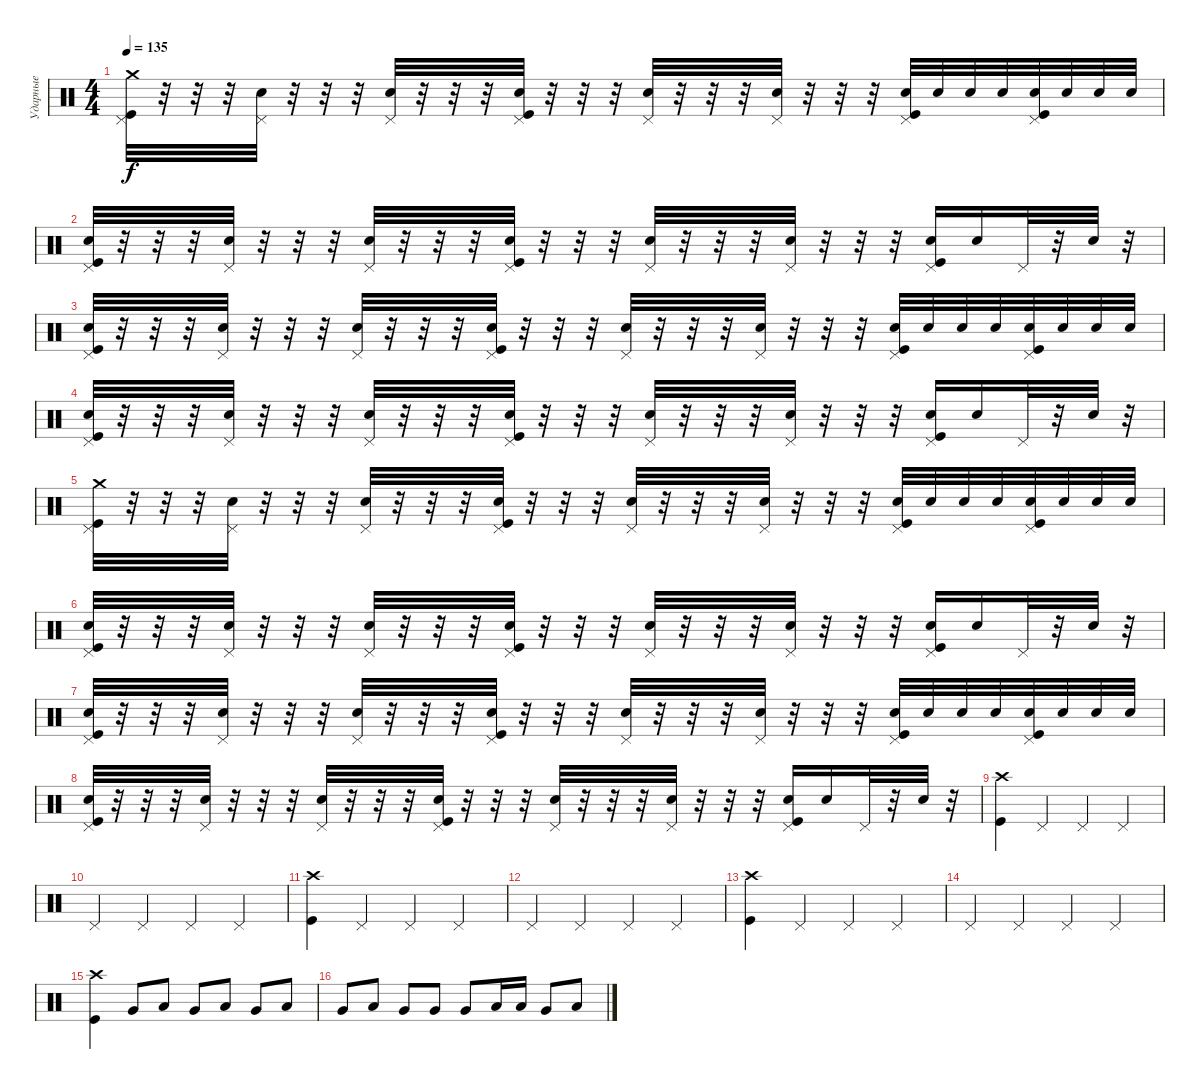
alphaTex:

\track ("Ударные" "Ударные") {instrument percussion}
\staff {score}
\articulation defaults
\ts (4 4)
\tempo 135
\clef neutral
\ks c
("Crash medium (hit)" "Pedal Hi-Hat (hit)" "Kick (hit)").32{dy f} r.32 r.32 r.32 ("Pedal Hi-Hat (hit)" "Electric Snare (hit)").32 r.32 r.32 r.32 ("Pedal Hi-Hat (hit)" "Electric Snare (hit)").32 r.32 r.32 r.32 ("Pedal Hi-Hat (hit)" "Electric Snare (hit)" "Kick (hit)").32 r.32 r.32 r.32 ("Pedal Hi-Hat (hit)" "Electric Snare (hit)").32 r.32 r.32 r.32 ("Pedal Hi-Hat (hit)" "Electric Snare (hit)").32 r.32 r.32 r.32 ("Pedal Hi-Hat (hit)" "Electric Snare (hit)" "Kick (hit)").32 "Electric Snare (hit)".32 "Electric Snare (hit)".32 "Electric Snare (hit)".32 ("Pedal Hi-Hat (hit)" "Electric Snare (hit)" "Kick (hit)").32 "Electric Snare (hit)".32 "Electric Snare (hit)".32 "Electric Snare (hit)".32 |
("Pedal Hi-Hat (hit)" "Electric Snare (hit)" "Kick (hit)").32 r.32 r.32 r.32 ("Pedal Hi-Hat (hit)" "Electric Snare (hit)").32 r.32 r.32 r.32 ("Pedal Hi-Hat (hit)" "Electric Snare (hit)").32 r.32 r.32 r.32 ("Pedal Hi-Hat (hit)" "Kick (hit)" "Electric Snare (hit)").32 r.32 r.32 r.32 ("Pedal Hi-Hat (hit)" "Electric Snare (hit)").32 r.32 r.32 r.32 ("Pedal Hi-Hat (hit)" "Electric Snare (hit)").32 r.32 r.32 r.32 ("Pedal Hi-Hat (hit)" "Electric Snare (hit)" "Kick (hit)").16 "Electric Snare (hit)".16 "Pedal Hi-Hat (hit)".32 r.32 "Electric Snare (hit)".32 r.32 |
("Pedal Hi-Hat (hit)" "Kick (hit)" "Electric Snare (hit)").32 r.32 r.32 r.32 ("Pedal Hi-Hat (hit)" "Electric Snare (hit)").32 r.32 r.32 r.32 ("Pedal Hi-Hat (hit)" "Electric Snare (hit)").32 r.32 r.32 r.32 ("Pedal Hi-Hat (hit)" "Electric Snare (hit)" "Kick (hit)").32 r.32 r.32 r.32 ("Pedal Hi-Hat (hit)" "Electric Snare (hit)").32 r.32 r.32 r.32 ("Pedal Hi-Hat (hit)" "Electric Snare (hit)").32 r.32 r.32 r.32 ("Pedal Hi-Hat (hit)" "Electric Snare (hit)" "Kick (hit)").32 "Electric Snare (hit)".32 "Electric Snare (hit)".32 "Electric Snare (hit)".32 ("Pedal Hi-Hat (hit)" "Electric Snare (hit)" "Kick (hit)").32 "Electric Snare (hit)".32 "Electric Snare (hit)".32 "Electric Snare (hit)".32 |
("Pedal Hi-Hat (hit)" "Electric Snare (hit)" "Kick (hit)").32 r.32 r.32 r.32 ("Pedal Hi-Hat (hit)" "Electric Snare (hit)").32 r.32 r.32 r.32 ("Pedal Hi-Hat (hit)" "Electric Snare (hit)").32 r.32 r.32 r.32 ("Pedal Hi-Hat (hit)" "Kick (hit)" "Electric Snare (hit)").32 r.32 r.32 r.32 ("Pedal Hi-Hat (hit)" "Electric Snare (hit)").32 r.32 r.32 r.32 ("Pedal Hi-Hat (hit)" "Electric Snare (hit)").32 r.32 r.32 r.32 ("Pedal Hi-Hat (hit)" "Electric Snare (hit)" "Kick (hit)").16 "Electric Snare (hit)".16 "Pedal Hi-Hat (hit)".32 r.32 "Electric Snare (hit)".32 r.32 |
("Crash medium (hit)" "Pedal Hi-Hat (hit)" "Kick (hit)").32 r.32 r.32 r.32 ("Pedal Hi-Hat (hit)" "Electric Snare (hit)").32 r.32 r.32 r.32 ("Pedal Hi-Hat (hit)" "Electric Snare (hit)").32 r.32 r.32 r.32 ("Pedal Hi-Hat (hit)" "Electric Snare (hit)" "Kick (hit)").32 r.32 r.32 r.32 ("Pedal Hi-Hat (hit)" "Electric Snare (hit)").32 r.32 r.32 r.32 ("Pedal Hi-Hat (hit)" "Electric Snare (hit)").32 r.32 r.32 r.32 ("Pedal Hi-Hat (hit)" "Electric Snare (hit)" "Kick (hit)").32 "Electric Snare (hit)".32 "Electric Snare (hit)".32 "Electric Snare (hit)".32 ("Pedal Hi-Hat (hit)" "Electric Snare (hit)" "Kick (hit)").32 "Electric Snare (hit)".32 "Electric Snare (hit)".32 "Electric Snare (hit)".32 |
("Pedal Hi-Hat (hit)" "Electric Snare (hit)" "Kick (hit)").32 r.32 r.32 r.32 ("Pedal Hi-Hat (hit)" "Electric Snare (hit)").32 r.32 r.32 r.32 ("Pedal Hi-Hat (hit)" "Electric Snare (hit)").32 r.32 r.32 r.32 ("Pedal Hi-Hat (hit)" "Kick (hit)" "Electric Snare (hit)").32 r.32 r.32 r.32 ("Pedal Hi-Hat (hit)" "Electric Snare (hit)").32 r.32 r.32 r.32 ("Pedal Hi-Hat (hit)" "Electric Snare (hit)").32 r.32 r.32 r.32 ("Pedal Hi-Hat (hit)" "Electric Snare (hit)" "Kick (hit)").16 "Electric Snare (hit)".16 "Pedal Hi-Hat (hit)".32 r.32 "Electric Snare (hit)".32 r.32 |
("Pedal Hi-Hat (hit)" "Kick (hit)" "Electric Snare (hit)").32 r.32 r.32 r.32 ("Pedal Hi-Hat (hit)" "Electric Snare (hit)").32 r.32 r.32 r.32 ("Pedal Hi-Hat (hit)" "Electric Snare (hit)").32 r.32 r.32 r.32 ("Pedal Hi-Hat (hit)" "Electric Snare (hit)" "Kick (hit)").32 r.32 r.32 r.32 ("Pedal Hi-Hat (hit)" "Electric Snare (hit)").32 r.32 r.32 r.32 ("Pedal Hi-Hat (hit)" "Electric Snare (hit)").32 r.32 r.32 r.32 ("Pedal Hi-Hat (hit)" "Electric Snare (hit)" "Kick (hit)").32 "Electric Snare (hit)".32 "Electric Snare (hit)".32 "Electric Snare (hit)".32 ("Pedal Hi-Hat (hit)" "Electric Snare (hit)" "Kick (hit)").32 "Electric Snare (hit)".32 "Electric Snare (hit)".32 "Electric Snare (hit)".32 |
("Pedal Hi-Hat (hit)" "Electric Snare (hit)" "Kick (hit)").32 r.32 r.32 r.32 ("Pedal Hi-Hat (hit)" "Electric Snare (hit)").32 r.32 r.32 r.32 ("Pedal Hi-Hat (hit)" "Electric Snare (hit)").32 r.32 r.32 r.32 ("Pedal Hi-Hat (hit)" "Kick (hit)" "Electric Snare (hit)").32 r.32 r.32 r.32 ("Pedal Hi-Hat (hit)" "Electric Snare (hit)").32 r.32 r.32 r.32 ("Pedal Hi-Hat (hit)" "Electric Snare (hit)").32 r.32 r.32 r.32 ("Pedal Hi-Hat (hit)" "Electric Snare (hit)" "Kick (hit)").16 "Electric Snare (hit)".16 "Pedal Hi-Hat (hit)".32 r.32 "Electric Snare (hit)".32 r.32 |
("Crash high (hit)" "Kick (hit)").4 "Pedal Hi-Hat (hit)".4 "Pedal Hi-Hat (hit)".4 "Pedal Hi-Hat (hit)".4 |
"Pedal Hi-Hat (hit)".4 "Pedal Hi-Hat (hit)".4 "Pedal Hi-Hat (hit)".4 "Pedal Hi-Hat (hit)".4 |
("Crash high (hit)" "Kick (hit)").4 "Pedal Hi-Hat (hit)".4 "Pedal Hi-Hat (hit)".4 "Pedal Hi-Hat (hit)".4 |
"Pedal Hi-Hat (hit)".4 "Pedal Hi-Hat (hit)".4 "Pedal Hi-Hat (hit)".4 "Pedal Hi-Hat (hit)".4 |
("Crash high (hit)" "Kick (hit)").4 "Pedal Hi-Hat (hit)".4 "Pedal Hi-Hat (hit)".4 "Pedal Hi-Hat (hit)".4 |
"Pedal Hi-Hat (hit)".4 "Pedal Hi-Hat (hit)".4 "Pedal Hi-Hat (hit)".4 "Pedal Hi-Hat (hit)".4 |
("Crash high (hit)" "Kick (hit)").4 "Very Low Tom (hit)".8 "Low Floor Tom (hit)".8 "Very Low Tom (hit)".8 "Low Floor Tom (hit)".8 "Very Low Tom (hit)".8 "Low Floor Tom (hit)".8 |
"Very Low Tom (hit)".8 "Low Floor Tom (hit)".8 "Very Low Tom (hit)".8 "Very Low Tom (hit)".8 "Very Low Tom (hit)".8 "Low Floor Tom (hit)".16 "Low Floor Tom (hit)".16 "Very Low Tom (hit)".8 "Low Floor Tom (hit)".8
